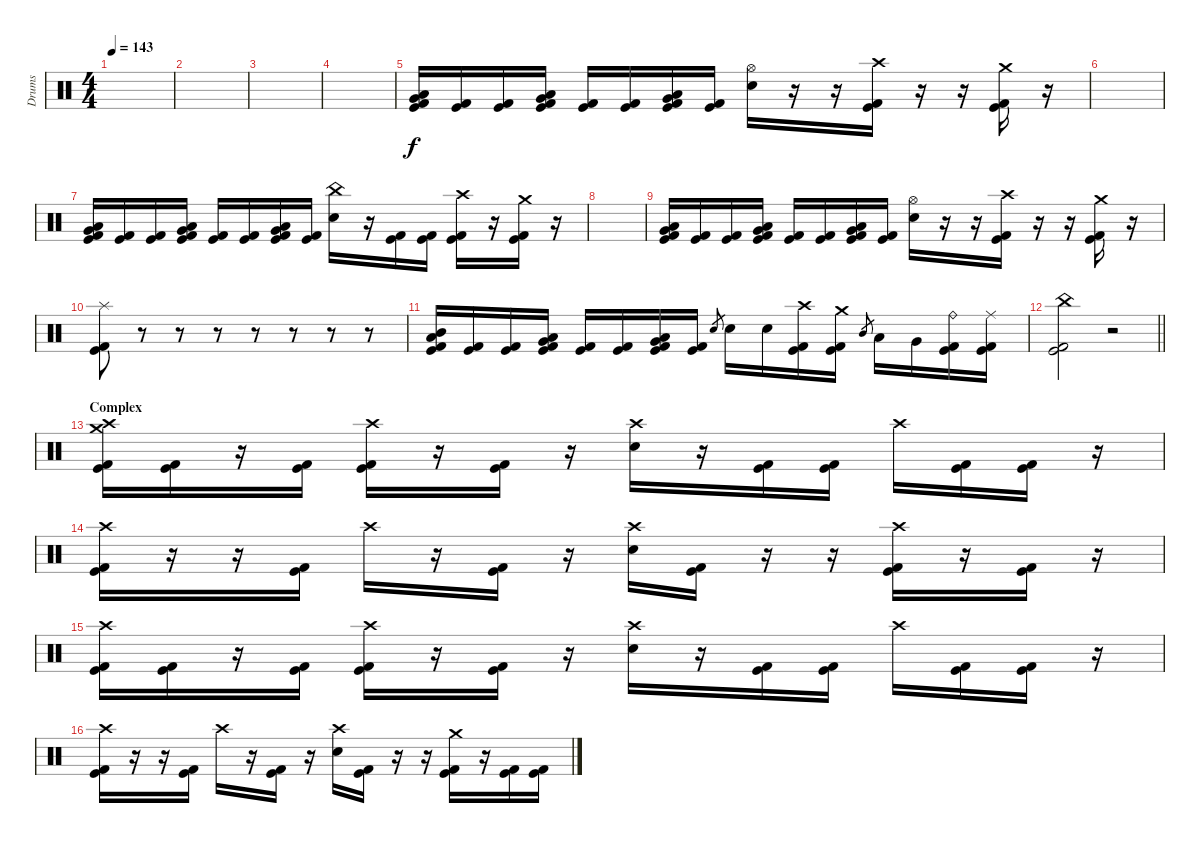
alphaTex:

\track ("Drums" "Drums") {instrument percussion}
\staff {score}
\articulation defaults
\ts (4 4)
\tempo 143
\clef neutral
\ks c
|
|
|
|
("Low Floor Tom (hit)" "Very Low Tom (hit)" "Kick (hit)" "Kick (hit) 2").16 ("Kick (hit)" "Kick (hit) 2").16 ("Kick (hit)" "Kick (hit) 2").16 ("Low Floor Tom (hit)" "Very Low Tom (hit)" "Kick (hit)" "Kick (hit) 2").16 ("Kick (hit)" "Kick (hit) 2").16 ("Kick (hit)" "Kick (hit) 2").16 ("Low Floor Tom (hit)" "Very Low Tom (hit)" "Kick (hit)" "Kick (hit) 2").16 ("Kick (hit)" "Kick (hit) 2").16 ("Hi-Hat (open)" "Electric Snare (hit)").16 r.16 r.16 ("Crash high (hit)" "Kick (hit)" "Kick (hit) 2").16 r.16 r.16 ("Crash medium (hit)" "Kick (hit)" "Kick (hit) 2").16 r.16 |
|
("Low Floor Tom (hit)" "Very Low Tom (hit)" "Kick (hit)" "Kick (hit) 2").16 ("Kick (hit)" "Kick (hit) 2").16 ("Kick (hit)" "Kick (hit) 2").16 ("Low Floor Tom (hit)" "Very Low Tom (hit)" "Kick (hit)" "Kick (hit) 2").16 ("Kick (hit)" "Kick (hit) 2").16 ("Kick (hit)" "Kick (hit) 2").16 ("Low Floor Tom (hit)" "Very Low Tom (hit)" "Kick (hit)" "Kick (hit) 2").16 ("Kick (hit)" "Kick (hit) 2").16 ("China (hit)" "Electric Snare (hit)").16 r.16 ("Kick (hit)" "Kick (hit) 2").16 ("Kick (hit)" "Kick (hit) 2").16 ("Crash high (hit)" "Kick (hit)" "Kick (hit) 2").16 r.16 ("Crash medium (hit)" "Kick (hit)" "Kick (hit) 2").16 r.16 |
|
("Low Floor Tom (hit)" "Very Low Tom (hit)" "Kick (hit)" "Kick (hit) 2").16 ("Kick (hit)" "Kick (hit) 2").16 ("Kick (hit)" "Kick (hit) 2").16 ("Low Floor Tom (hit)" "Very Low Tom (hit)" "Kick (hit)" "Kick (hit) 2").16 ("Kick (hit)" "Kick (hit) 2").16 ("Kick (hit)" "Kick (hit) 2").16 ("Low Floor Tom (hit)" "Very Low Tom (hit)" "Kick (hit)" "Kick (hit) 2").16 ("Kick (hit)" "Kick (hit) 2").16 ("Hi-Hat (open)" "Electric Snare (hit)").16 r.16 r.16 ("Crash high (hit)" "Kick (hit)" "Kick (hit) 2").16 r.16 r.16 ("Crash medium (hit)" "Kick (hit)" "Kick (hit) 2").16 r.16 |
("Splash (hit)" "Kick (hit)" "Kick (hit) 2").8 r.8 r.8 r.8 r.8 r.8 r.8 r.8 |
("Mid Tom (hit)" "Low Tom (hit)" "Kick (hit)" "Kick (hit) 2").16 ("Kick (hit)" "Kick (hit) 2").16 ("Kick (hit)" "Kick (hit) 2").16 ("Low Tom (hit)" "Very Low Tom (hit)" "Kick (hit)" "Kick (hit) 2").16 ("Kick (hit)" "Kick (hit) 2").16 ("Kick (hit)" "Kick (hit) 2").16 ("Very Low Tom (hit)" "Low Floor Tom (hit)" "Kick (hit)" "Kick (hit) 2").16 ("Kick (hit)" "Kick (hit) 2").16 "Electric Snare (hit)".8{gr} "Electric Snare (hit)".16 "Electric Snare (hit)".16 ("Crash high (hit)" "Kick (hit)" "Kick (hit) 2").16 ("Crash medium (hit)" "Kick (hit)" "Kick (hit) 2").16 "Mid Tom (hit)".8{gr} "Low Tom (hit)".16 "Very Low Tom (hit)".16 ("Ride (bell)" "Kick (hit)" "Kick (hit) 2").16 ("Ride (middle)" "Kick (hit)" "Kick (hit) 2").16 |
\barLineRight lightlight
("China (hit)" "Kick (hit)" "Kick (hit) 2").2 r.2{volume 0} |
\section ("" "Complex")
("Crash medium (hit)" "Crash high (hit)" "Kick (hit)" "Kick (hit) 2").16{volume 16} ("Kick (hit)" "Kick (hit) 2").16 r.16 ("Kick (hit)" "Kick (hit) 2").16 ("Crash high (hit)" "Kick (hit)" "Kick (hit) 2").16 r.16 ("Kick (hit)" "Kick (hit) 2").16 r.16 ("Crash high (hit)" "Electric Snare (hit)").16 r.16 ("Kick (hit)" "Kick (hit) 2").16 ("Kick (hit)" "Kick (hit) 2").16 "Crash high (hit)".16 ("Kick (hit)" "Kick (hit) 2").16 ("Kick (hit)" "Kick (hit) 2").16 r.16 |
("Crash high (hit)" "Kick (hit)" "Kick (hit) 2").16 r.16 r.16 ("Kick (hit)" "Kick (hit) 2").16 "Crash high (hit)".16 r.16 ("Kick (hit)" "Kick (hit) 2").16 r.16 ("Crash high (hit)" "Electric Snare (hit)").16 ("Kick (hit)" "Kick (hit) 2").16 r.16 r.16 ("Crash high (hit)" "Kick (hit)" "Kick (hit) 2").16 r.16 ("Kick (hit)" "Kick (hit) 2").16 r.16 |
("Crash high (hit)" "Kick (hit)" "Kick (hit) 2").16 ("Kick (hit)" "Kick (hit) 2").16 r.16 ("Kick (hit)" "Kick (hit) 2").16 ("Crash high (hit)" "Kick (hit)" "Kick (hit) 2").16 r.16 ("Kick (hit)" "Kick (hit) 2").16 r.16 ("Crash high (hit)" "Electric Snare (hit)").16 r.16 ("Kick (hit)" "Kick (hit) 2").16 ("Kick (hit)" "Kick (hit) 2").16 "Crash high (hit)".16 ("Kick (hit)" "Kick (hit) 2").16 ("Kick (hit)" "Kick (hit) 2").16 r.16 |
("Crash high (hit)" "Kick (hit)" "Kick (hit) 2").16 r.16 r.16 ("Kick (hit)" "Kick (hit) 2").16 "Crash high (hit)".16 r.16 ("Kick (hit)" "Kick (hit) 2").16 r.16 ("Crash high (hit)" "Electric Snare (hit)").16 ("Kick (hit)" "Kick (hit) 2").16 r.16 r.16 ("Crash medium (hit)" "Kick (hit)" "Kick (hit) 2").16 r.16 ("Kick (hit)" "Kick (hit) 2").16 ("Kick (hit)" "Kick (hit) 2").16
